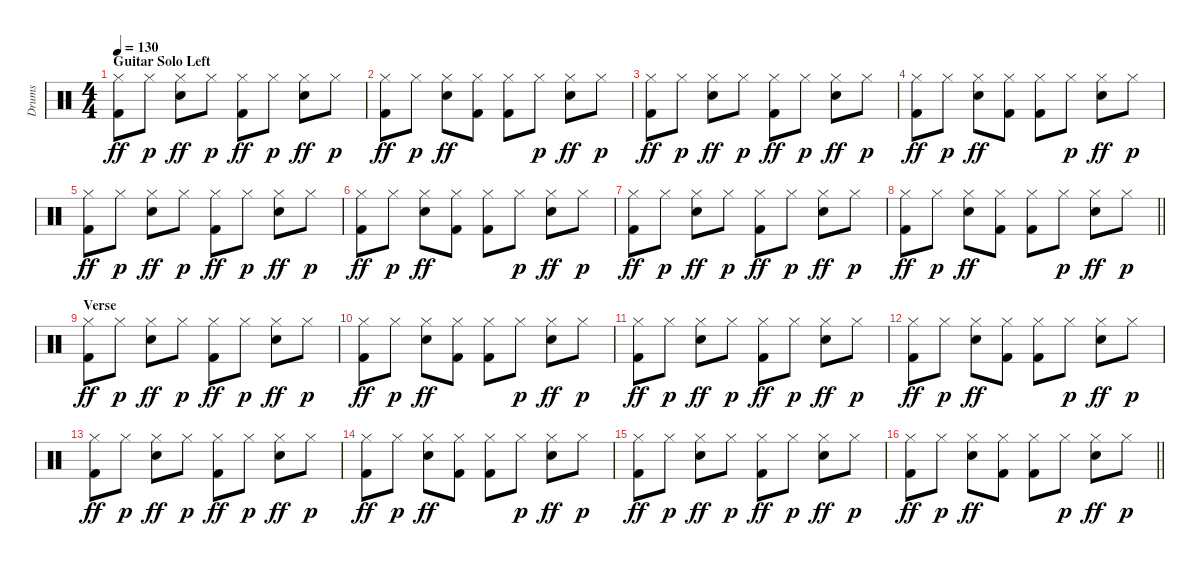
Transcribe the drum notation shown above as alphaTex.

\track ("Drums" "Drums") {instrument percussion}
\staff {score}
\articulation defaults
\ts (4 4)
\section ("" "Guitar Solo Left")
\tempo 130
\clef neutral
\ks c
("Hi-Hat (closed)" "Kick (hit) 2").8{dy ff} "Hi-Hat (closed)".8{dy p} ("Hi-Hat (closed)" "Electric Snare (hit)").8{dy ff} "Hi-Hat (closed)".8{dy p} ("Hi-Hat (closed)" "Kick (hit) 2").8{dy ff} "Hi-Hat (closed)".8{dy p} ("Hi-Hat (closed)" "Electric Snare (hit)").8{dy ff} "Hi-Hat (closed)".8{dy p} |
("Hi-Hat (closed)" "Kick (hit) 2").8{dy ff} "Hi-Hat (closed)".8{dy p} ("Hi-Hat (closed)" "Electric Snare (hit)").8{dy ff} ("Hi-Hat (closed)" "Kick (hit) 2").8 ("Hi-Hat (closed)" "Kick (hit) 2").8 "Hi-Hat (closed)".8{dy p} ("Hi-Hat (closed)" "Electric Snare (hit)").8{dy ff} "Hi-Hat (closed)".8{dy p} |
("Hi-Hat (closed)" "Kick (hit) 2").8{dy ff} "Hi-Hat (closed)".8{dy p} ("Hi-Hat (closed)" "Electric Snare (hit)").8{dy ff} "Hi-Hat (closed)".8{dy p} ("Hi-Hat (closed)" "Kick (hit) 2").8{dy ff} "Hi-Hat (closed)".8{dy p} ("Hi-Hat (closed)" "Electric Snare (hit)").8{dy ff} "Hi-Hat (closed)".8{dy p} |
("Hi-Hat (closed)" "Kick (hit) 2").8{dy ff} "Hi-Hat (closed)".8{dy p} ("Hi-Hat (closed)" "Electric Snare (hit)").8{dy ff} ("Hi-Hat (closed)" "Kick (hit) 2").8 ("Hi-Hat (closed)" "Kick (hit) 2").8 "Hi-Hat (closed)".8{dy p} ("Hi-Hat (closed)" "Electric Snare (hit)").8{dy ff} "Hi-Hat (closed)".8{dy p} |
("Hi-Hat (closed)" "Kick (hit) 2").8{dy ff} "Hi-Hat (closed)".8{dy p} ("Hi-Hat (closed)" "Electric Snare (hit)").8{dy ff} "Hi-Hat (closed)".8{dy p} ("Hi-Hat (closed)" "Kick (hit) 2").8{dy ff} "Hi-Hat (closed)".8{dy p} ("Hi-Hat (closed)" "Electric Snare (hit)").8{dy ff} "Hi-Hat (closed)".8{dy p} |
("Hi-Hat (closed)" "Kick (hit) 2").8{dy ff} "Hi-Hat (closed)".8{dy p} ("Hi-Hat (closed)" "Electric Snare (hit)").8{dy ff} ("Hi-Hat (closed)" "Kick (hit) 2").8 ("Hi-Hat (closed)" "Kick (hit) 2").8 "Hi-Hat (closed)".8{dy p} ("Hi-Hat (closed)" "Electric Snare (hit)").8{dy ff} "Hi-Hat (closed)".8{dy p} |
("Hi-Hat (closed)" "Kick (hit) 2").8{dy ff} "Hi-Hat (closed)".8{dy p} ("Hi-Hat (closed)" "Electric Snare (hit)").8{dy ff} "Hi-Hat (closed)".8{dy p} ("Hi-Hat (closed)" "Kick (hit) 2").8{dy ff} "Hi-Hat (closed)".8{dy p} ("Hi-Hat (closed)" "Electric Snare (hit)").8{dy ff} "Hi-Hat (closed)".8{dy p} |
\barLineRight lightlight
("Hi-Hat (closed)" "Kick (hit) 2").8{dy ff} "Hi-Hat (closed)".8{dy p} ("Hi-Hat (closed)" "Electric Snare (hit)").8{dy ff} ("Hi-Hat (closed)" "Kick (hit) 2").8 ("Hi-Hat (closed)" "Kick (hit) 2").8 "Hi-Hat (closed)".8{dy p} ("Hi-Hat (closed)" "Electric Snare (hit)").8{dy ff} "Hi-Hat (closed)".8{dy p} |
\section ("" "Verse")
("Hi-Hat (closed)" "Kick (hit) 2").8{dy ff} "Hi-Hat (closed)".8{dy p} ("Hi-Hat (closed)" "Electric Snare (hit)").8{dy ff} "Hi-Hat (closed)".8{dy p} ("Hi-Hat (closed)" "Kick (hit) 2").8{dy ff} "Hi-Hat (closed)".8{dy p} ("Hi-Hat (closed)" "Electric Snare (hit)").8{dy ff} "Hi-Hat (closed)".8{dy p} |
("Hi-Hat (closed)" "Kick (hit) 2").8{dy ff} "Hi-Hat (closed)".8{dy p} ("Hi-Hat (closed)" "Electric Snare (hit)").8{dy ff} ("Hi-Hat (closed)" "Kick (hit) 2").8 ("Hi-Hat (closed)" "Kick (hit) 2").8 "Hi-Hat (closed)".8{dy p} ("Hi-Hat (closed)" "Electric Snare (hit)").8{dy ff} "Hi-Hat (closed)".8{dy p} |
("Hi-Hat (closed)" "Kick (hit) 2").8{dy ff} "Hi-Hat (closed)".8{dy p} ("Hi-Hat (closed)" "Electric Snare (hit)").8{dy ff} "Hi-Hat (closed)".8{dy p} ("Hi-Hat (closed)" "Kick (hit) 2").8{dy ff} "Hi-Hat (closed)".8{dy p} ("Hi-Hat (closed)" "Electric Snare (hit)").8{dy ff} "Hi-Hat (closed)".8{dy p} |
("Hi-Hat (closed)" "Kick (hit) 2").8{dy ff} "Hi-Hat (closed)".8{dy p} ("Hi-Hat (closed)" "Electric Snare (hit)").8{dy ff} ("Hi-Hat (closed)" "Kick (hit) 2").8 ("Hi-Hat (closed)" "Kick (hit) 2").8 "Hi-Hat (closed)".8{dy p} ("Hi-Hat (closed)" "Electric Snare (hit)").8{dy ff} "Hi-Hat (closed)".8{dy p} |
("Hi-Hat (closed)" "Kick (hit) 2").8{dy ff} "Hi-Hat (closed)".8{dy p} ("Hi-Hat (closed)" "Electric Snare (hit)").8{dy ff} "Hi-Hat (closed)".8{dy p} ("Hi-Hat (closed)" "Kick (hit) 2").8{dy ff} "Hi-Hat (closed)".8{dy p} ("Hi-Hat (closed)" "Electric Snare (hit)").8{dy ff} "Hi-Hat (closed)".8{dy p} |
("Hi-Hat (closed)" "Kick (hit) 2").8{dy ff} "Hi-Hat (closed)".8{dy p} ("Hi-Hat (closed)" "Electric Snare (hit)").8{dy ff} ("Hi-Hat (closed)" "Kick (hit) 2").8 ("Hi-Hat (closed)" "Kick (hit) 2").8 "Hi-Hat (closed)".8{dy p} ("Hi-Hat (closed)" "Electric Snare (hit)").8{dy ff} "Hi-Hat (closed)".8{dy p} |
("Hi-Hat (closed)" "Kick (hit) 2").8{dy ff} "Hi-Hat (closed)".8{dy p} ("Hi-Hat (closed)" "Electric Snare (hit)").8{dy ff} "Hi-Hat (closed)".8{dy p} ("Hi-Hat (closed)" "Kick (hit) 2").8{dy ff} "Hi-Hat (closed)".8{dy p} ("Hi-Hat (closed)" "Electric Snare (hit)").8{dy ff} "Hi-Hat (closed)".8{dy p} |
\barLineRight lightlight
("Hi-Hat (closed)" "Kick (hit) 2").8{dy ff} "Hi-Hat (closed)".8{dy p} ("Hi-Hat (closed)" "Electric Snare (hit)").8{dy ff} ("Hi-Hat (closed)" "Kick (hit) 2").8 ("Hi-Hat (closed)" "Kick (hit) 2").8 "Hi-Hat (closed)".8{dy p} ("Hi-Hat (closed)" "Electric Snare (hit)").8{dy ff} "Hi-Hat (closed)".8{dy p}
